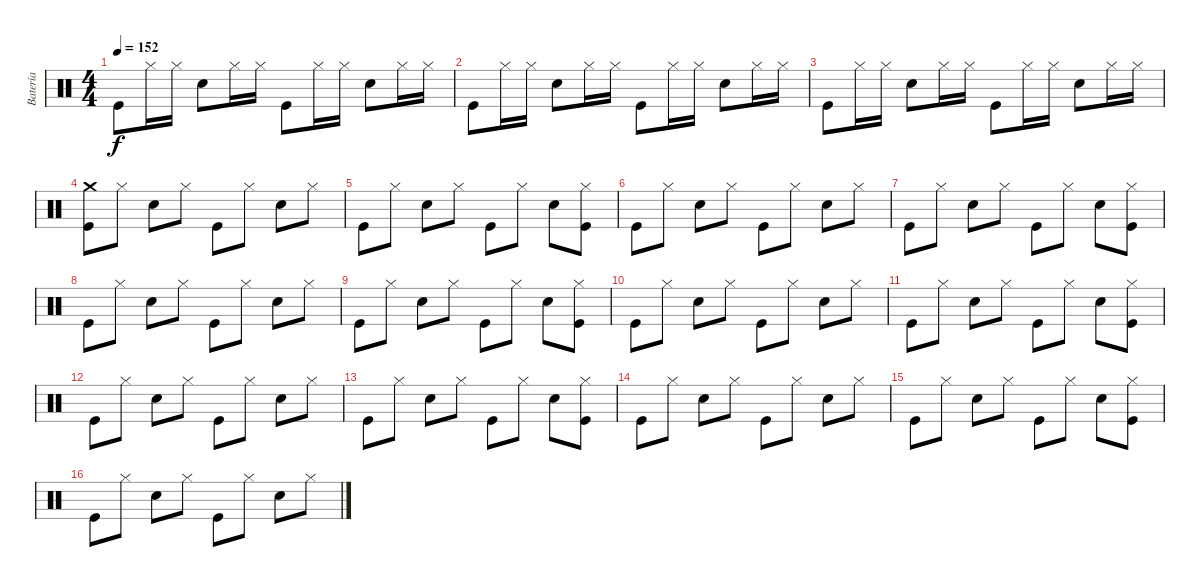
\track ("Batería" "Batería") {instrument percussion}
\staff {score}
\articulation defaults
\ts (4 4)
\tempo 152
\clef neutral
\ks c "Kick (hit)".8{dy f} "Hi-Hat (closed)".16 "Hi-Hat (closed)".16 "Snare (hit) 2".8 "Hi-Hat (closed)".16 "Hi-Hat (closed)".16 "Kick (hit)".8 "Hi-Hat (closed)".16 "Hi-Hat (closed)".16 "Snare (hit) 2".8 "Hi-Hat (closed)".16 "Hi-Hat (closed)".16
|
"Kick (hit)".8 "Hi-Hat (closed)".16 "Hi-Hat (closed)".16 "Snare (hit) 2".8 "Hi-Hat (closed)".16 "Hi-Hat (closed)".16 "Kick (hit)".8 "Hi-Hat (closed)".16 "Hi-Hat (closed)".16 "Snare (hit) 2".8 "Hi-Hat (closed)".16 "Hi-Hat (closed)".16 |
"Kick (hit)".8 "Hi-Hat (closed)".16 "Hi-Hat (closed)".16 "Snare (hit) 2".8 "Hi-Hat (closed)".16 "Hi-Hat (closed)".16 "Kick (hit)".8 "Hi-Hat (closed)".16 "Hi-Hat (closed)".16 "Snare (hit) 2".8 "Hi-Hat (closed)".16 "Hi-Hat (closed)".16 |
("Crash medium (hit)" "Kick (hit)").8 "Hi-Hat (closed)".8 "Snare (hit) 2".8 "Hi-Hat (closed)".8 "Kick (hit)".8 "Hi-Hat (closed)".8 "Snare (hit) 2".8 "Hi-Hat (closed)".8 |
"Kick (hit)".8 "Hi-Hat (closed)".8 "Snare (hit) 2".8 "Hi-Hat (closed)".8 "Kick (hit)".8 "Hi-Hat (closed)".8 "Snare (hit) 2".8 ("Kick (hit)" "Hi-Hat (closed)").8 |
"Kick (hit)".8 "Hi-Hat (closed)".8 "Snare (hit) 2".8 "Hi-Hat (closed)".8 "Kick (hit)".8 "Hi-Hat (closed)".8 "Snare (hit) 2".8 "Hi-Hat (closed)".8 |
"Kick (hit)".8 "Hi-Hat (closed)".8 "Snare (hit) 2".8 "Hi-Hat (closed)".8 "Kick (hit)".8 "Hi-Hat (closed)".8 "Snare (hit) 2".8 ("Kick (hit)" "Hi-Hat (closed)").8 |
"Kick (hit)".8 "Hi-Hat (closed)".8 "Snare (hit) 2".8 "Hi-Hat (closed)".8 "Kick (hit)".8 "Hi-Hat (closed)".8 "Snare (hit) 2".8 "Hi-Hat (closed)".8 |
"Kick (hit)".8 "Hi-Hat (closed)".8 "Snare (hit) 2".8 "Hi-Hat (closed)".8 "Kick (hit)".8 "Hi-Hat (closed)".8 "Snare (hit) 2".8 ("Kick (hit)" "Hi-Hat (closed)").8 |
"Kick (hit)".8 "Hi-Hat (closed)".8 "Snare (hit) 2".8 "Hi-Hat (closed)".8 "Kick (hit)".8 "Hi-Hat (closed)".8 "Snare (hit) 2".8 "Hi-Hat (closed)".8 |
"Kick (hit)".8 "Hi-Hat (closed)".8 "Snare (hit) 2".8 "Hi-Hat (closed)".8 "Kick (hit)".8 "Hi-Hat (closed)".8 "Snare (hit) 2".8 ("Kick (hit)" "Hi-Hat (closed)").8 |
"Kick (hit)".8 "Hi-Hat (closed)".8 "Snare (hit) 2".8 "Hi-Hat (closed)".8 "Kick (hit)".8 "Hi-Hat (closed)".8 "Snare (hit) 2".8 "Hi-Hat (closed)".8 |
"Kick (hit)".8 "Hi-Hat (closed)".8 "Snare (hit) 2".8 "Hi-Hat (closed)".8 "Kick (hit)".8 "Hi-Hat (closed)".8 "Snare (hit) 2".8 ("Kick (hit)" "Hi-Hat (closed)").8 |
"Kick (hit)".8 "Hi-Hat (closed)".8 "Snare (hit) 2".8 "Hi-Hat (closed)".8 "Kick (hit)".8 "Hi-Hat (closed)".8 "Snare (hit) 2".8 "Hi-Hat (closed)".8 |
"Kick (hit)".8 "Hi-Hat (closed)".8 "Snare (hit) 2".8 "Hi-Hat (closed)".8 "Kick (hit)".8 "Hi-Hat (closed)".8 "Snare (hit) 2".8 ("Kick (hit)" "Hi-Hat (closed)").8 |
"Kick (hit)".8 "Hi-Hat (closed)".8 "Snare (hit) 2".8 "Hi-Hat (closed)".8 "Kick (hit)".8 "Hi-Hat (closed)".8 "Snare (hit) 2".8 "Hi-Hat (closed)".8
